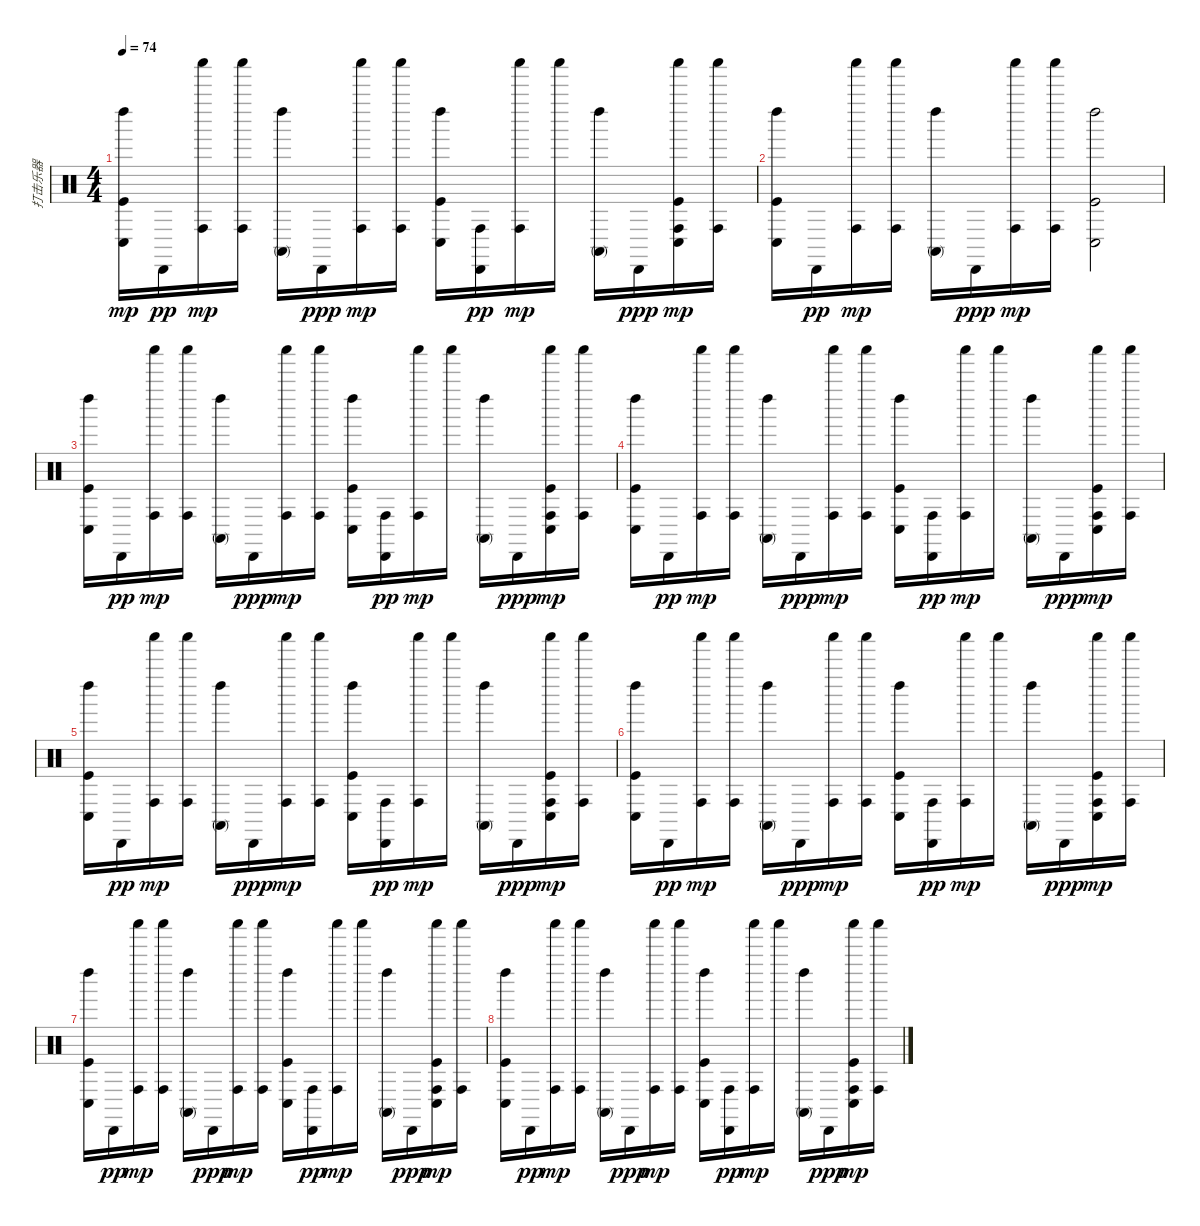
\track ("打击乐器" "打击乐器") {instrument percussion}
\staff {score}
\articulation defaults
\ts (4 4)
\tempo 74
\clef neutral
\ks c
("Kick (hit)" "Conga low (hit)" "Left Maraca (hit)").16{dy mp} "Cabasa (hit)".16{dy pp} ("Conga high (hit)" "Shaker (hit)").16{dy mp} ("Conga high (hit)" "Shaker (hit)").16 ("Conga high (mute)" "Left Maraca (hit)").16 "Cabasa (hit)".16{dy ppp} ("Conga high (hit)" "Shaker (hit)").16{dy mp} ("Conga high (hit)" "Shaker (hit)").16 ("Kick (hit)" "Conga low (hit)" "Left Maraca (hit)").16 ("Conga high (hit)" "Cabasa (hit)").16{dy pp} ("Conga high (hit)" "Shaker (hit)").16{dy mp} "Shaker (hit)".16 ("Conga high (mute)" "Left Maraca (hit)").16 "Cabasa (hit)".16{dy ppp} ("Kick (hit)" "Conga high (hit)" "Conga low (hit)" "Shaker (hit)").16{dy mp} ("Conga high (hit)" "Shaker (hit)").16 |
("Kick (hit)" "Conga low (hit)" "Left Maraca (hit)").16 "Cabasa (hit)".16{dy pp} ("Conga high (hit)" "Shaker (hit)").16{dy mp} ("Conga high (hit)" "Shaker (hit)").16 ("Conga high (mute)" "Left Maraca (hit)").16 "Cabasa (hit)".16{dy ppp} ("Conga high (hit)" "Shaker (hit)").16{dy mp} ("Conga high (hit)" "Shaker (hit)").16 ("Kick (hit)" "Conga low (hit)" "Left Maraca (hit)").2 |
("Kick (hit)" "Conga low (hit)" "Left Maraca (hit)").16 "Cabasa (hit)".16{dy pp} ("Conga high (hit)" "Shaker (hit)").16{dy mp} ("Conga high (hit)" "Shaker (hit)").16 ("Conga high (mute)" "Left Maraca (hit)").16 "Cabasa (hit)".16{dy ppp} ("Conga high (hit)" "Shaker (hit)").16{dy mp} ("Conga high (hit)" "Shaker (hit)").16 ("Kick (hit)" "Conga low (hit)" "Left Maraca (hit)").16 ("Conga high (hit)" "Cabasa (hit)").16{dy pp} ("Conga high (hit)" "Shaker (hit)").16{dy mp} "Shaker (hit)".16 ("Conga high (mute)" "Left Maraca (hit)").16 "Cabasa (hit)".16{dy ppp} ("Kick (hit)" "Conga high (hit)" "Conga low (hit)" "Shaker (hit)").16{dy mp} ("Conga high (hit)" "Shaker (hit)").16 |
("Kick (hit)" "Conga low (hit)" "Left Maraca (hit)").16 "Cabasa (hit)".16{dy pp} ("Conga high (hit)" "Shaker (hit)").16{dy mp} ("Conga high (hit)" "Shaker (hit)").16 ("Conga high (mute)" "Left Maraca (hit)").16 "Cabasa (hit)".16{dy ppp} ("Conga high (hit)" "Shaker (hit)").16{dy mp} ("Conga high (hit)" "Shaker (hit)").16 ("Kick (hit)" "Conga low (hit)" "Left Maraca (hit)").16 ("Conga high (hit)" "Cabasa (hit)").16{dy pp} ("Conga high (hit)" "Shaker (hit)").16{dy mp} "Shaker (hit)".16 ("Conga high (mute)" "Left Maraca (hit)").16 "Cabasa (hit)".16{dy ppp} ("Kick (hit)" "Conga high (hit)" "Conga low (hit)" "Shaker (hit)").16{dy mp} ("Conga high (hit)" "Shaker (hit)").16 |
("Kick (hit)" "Conga low (hit)" "Left Maraca (hit)").16 "Cabasa (hit)".16{dy pp} ("Conga high (hit)" "Shaker (hit)").16{dy mp} ("Conga high (hit)" "Shaker (hit)").16 ("Conga high (mute)" "Left Maraca (hit)").16 "Cabasa (hit)".16{dy ppp} ("Conga high (hit)" "Shaker (hit)").16{dy mp} ("Conga high (hit)" "Shaker (hit)").16 ("Kick (hit)" "Conga low (hit)" "Left Maraca (hit)").16 ("Conga high (hit)" "Cabasa (hit)").16{dy pp} ("Conga high (hit)" "Shaker (hit)").16{dy mp} "Shaker (hit)".16 ("Conga high (mute)" "Left Maraca (hit)").16 "Cabasa (hit)".16{dy ppp} ("Kick (hit)" "Conga high (hit)" "Conga low (hit)" "Shaker (hit)").16{dy mp} ("Conga high (hit)" "Shaker (hit)").16 |
("Kick (hit)" "Conga low (hit)" "Left Maraca (hit)").16 "Cabasa (hit)".16{dy pp} ("Conga high (hit)" "Shaker (hit)").16{dy mp} ("Conga high (hit)" "Shaker (hit)").16 ("Conga high (mute)" "Left Maraca (hit)").16 "Cabasa (hit)".16{dy ppp} ("Conga high (hit)" "Shaker (hit)").16{dy mp} ("Conga high (hit)" "Shaker (hit)").16 ("Kick (hit)" "Conga low (hit)" "Left Maraca (hit)").16 ("Conga high (hit)" "Cabasa (hit)").16{dy pp} ("Conga high (hit)" "Shaker (hit)").16{dy mp} "Shaker (hit)".16 ("Conga high (mute)" "Left Maraca (hit)").16 "Cabasa (hit)".16{dy ppp} ("Kick (hit)" "Conga high (hit)" "Conga low (hit)" "Shaker (hit)").16{dy mp} ("Conga high (hit)" "Shaker (hit)").16 |
("Kick (hit)" "Conga low (hit)" "Left Maraca (hit)").16 "Cabasa (hit)".16{dy pp} ("Conga high (hit)" "Shaker (hit)").16{dy mp} ("Conga high (hit)" "Shaker (hit)").16 ("Conga high (mute)" "Left Maraca (hit)").16 "Cabasa (hit)".16{dy ppp} ("Conga high (hit)" "Shaker (hit)").16{dy mp} ("Conga high (hit)" "Shaker (hit)").16 ("Kick (hit)" "Conga low (hit)" "Left Maraca (hit)").16 ("Conga high (hit)" "Cabasa (hit)").16{dy pp} ("Conga high (hit)" "Shaker (hit)").16{dy mp} "Shaker (hit)".16 ("Conga high (mute)" "Left Maraca (hit)").16 "Cabasa (hit)".16{dy ppp} ("Kick (hit)" "Conga high (hit)" "Conga low (hit)" "Shaker (hit)").16{dy mp} ("Conga high (hit)" "Shaker (hit)").16 |
("Kick (hit)" "Conga low (hit)" "Left Maraca (hit)").16 "Cabasa (hit)".16{dy pp} ("Conga high (hit)" "Shaker (hit)").16{dy mp} ("Conga high (hit)" "Shaker (hit)").16 ("Conga high (mute)" "Left Maraca (hit)").16 "Cabasa (hit)".16{dy ppp} ("Conga high (hit)" "Shaker (hit)").16{dy mp} ("Conga high (hit)" "Shaker (hit)").16 ("Kick (hit)" "Conga low (hit)" "Left Maraca (hit)").16 ("Conga high (hit)" "Cabasa (hit)").16{dy pp} ("Conga high (hit)" "Shaker (hit)").16{dy mp} "Shaker (hit)".16 ("Conga high (mute)" "Left Maraca (hit)").16 "Cabasa (hit)".16{dy ppp} ("Kick (hit)" "Conga high (hit)" "Conga low (hit)" "Shaker (hit)").16{dy mp} ("Conga high (hit)" "Shaker (hit)").16
